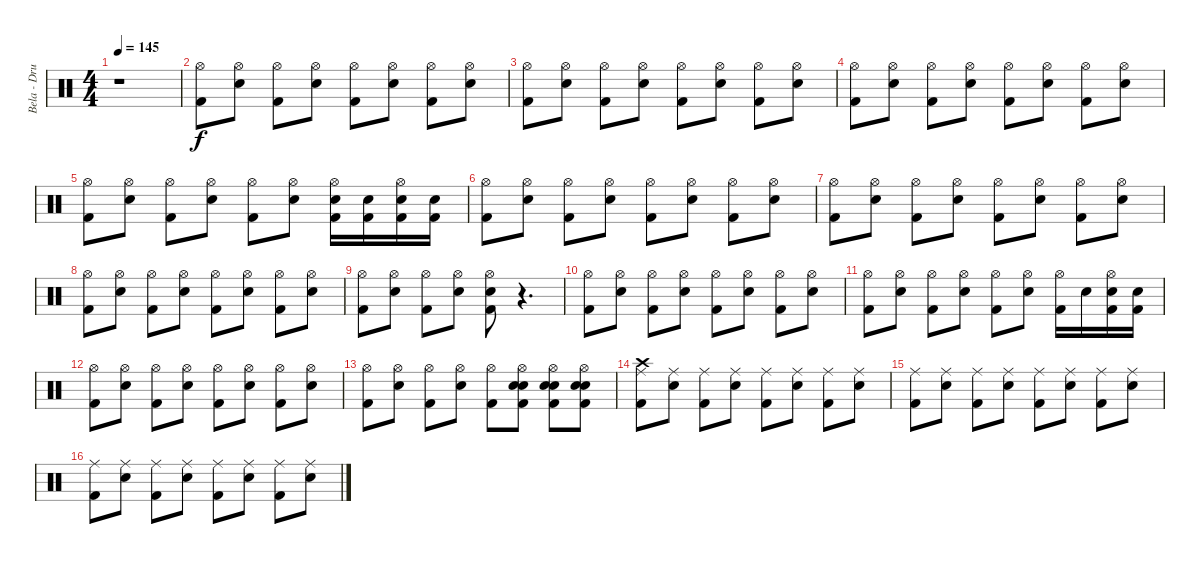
\track ("Bela - Drums" "Bela - Dru") {instrument percussion}
\staff {score}
\articulation defaults
\ts (4 4)
\tempo 145
\clef neutral
\ks c
r.1{dy f} |
("Hi-Hat (open)" "Kick (hit) 2").8 ("Hi-Hat (open)" "Electric Snare (hit)").8 ("Hi-Hat (open)" "Kick (hit) 2").8 ("Hi-Hat (open)" "Electric Snare (hit)").8 ("Hi-Hat (open)" "Kick (hit) 2").8 ("Hi-Hat (open)" "Electric Snare (hit)").8 ("Hi-Hat (open)" "Kick (hit) 2").8 ("Hi-Hat (open)" "Electric Snare (hit)").8 |
("Hi-Hat (open)" "Kick (hit) 2").8 ("Hi-Hat (open)" "Electric Snare (hit)").8 ("Hi-Hat (open)" "Kick (hit) 2").8 ("Hi-Hat (open)" "Electric Snare (hit)").8 ("Hi-Hat (open)" "Kick (hit) 2").8 ("Hi-Hat (open)" "Electric Snare (hit)").8 ("Hi-Hat (open)" "Kick (hit) 2").8 ("Hi-Hat (open)" "Electric Snare (hit)").8 |
("Hi-Hat (open)" "Kick (hit) 2").8 ("Hi-Hat (open)" "Electric Snare (hit)").8 ("Hi-Hat (open)" "Kick (hit) 2").8 ("Hi-Hat (open)" "Electric Snare (hit)").8 ("Hi-Hat (open)" "Kick (hit) 2").8 ("Hi-Hat (open)" "Electric Snare (hit)").8 ("Hi-Hat (open)" "Kick (hit) 2").8 ("Hi-Hat (open)" "Electric Snare (hit)").8 |
("Hi-Hat (open)" "Kick (hit) 2").8 ("Hi-Hat (open)" "Electric Snare (hit)").8 ("Hi-Hat (open)" "Kick (hit) 2").8 ("Hi-Hat (open)" "Electric Snare (hit)").8 ("Hi-Hat (open)" "Kick (hit) 2").8 ("Hi-Hat (open)" "Electric Snare (hit)").8 ("Electric Snare (hit)" "Hi-Hat (open)" "Kick (hit) 2").16 ("Kick (hit) 2" "Electric Snare (hit)").16 ("Kick (hit) 2" "Hi-Hat (open)" "Electric Snare (hit)").16 ("Electric Snare (hit)" "Kick (hit) 2").16 |
("Hi-Hat (open)" "Kick (hit) 2").8 ("Hi-Hat (open)" "Electric Snare (hit)").8 ("Hi-Hat (open)" "Kick (hit) 2").8 ("Hi-Hat (open)" "Electric Snare (hit)").8 ("Hi-Hat (open)" "Kick (hit) 2").8 ("Hi-Hat (open)" "Electric Snare (hit)").8 ("Hi-Hat (open)" "Kick (hit) 2").8 ("Hi-Hat (open)" "Electric Snare (hit)").8 |
("Hi-Hat (open)" "Kick (hit) 2").8 ("Hi-Hat (open)" "Electric Snare (hit)").8 ("Hi-Hat (open)" "Kick (hit) 2").8 ("Hi-Hat (open)" "Electric Snare (hit)").8 ("Hi-Hat (open)" "Kick (hit) 2").8 ("Hi-Hat (open)" "Electric Snare (hit)").8 ("Hi-Hat (open)" "Kick (hit) 2").8 ("Hi-Hat (open)" "Electric Snare (hit)").8 |
("Hi-Hat (open)" "Kick (hit) 2").8 ("Hi-Hat (open)" "Electric Snare (hit)").8 ("Hi-Hat (open)" "Kick (hit) 2").8 ("Hi-Hat (open)" "Electric Snare (hit)").8 ("Hi-Hat (open)" "Kick (hit) 2").8 ("Hi-Hat (open)" "Electric Snare (hit)").8 ("Hi-Hat (open)" "Kick (hit) 2").8 ("Hi-Hat (open)" "Electric Snare (hit)").8 |
("Hi-Hat (open)" "Kick (hit) 2").8 ("Hi-Hat (open)" "Electric Snare (hit)").8 ("Hi-Hat (open)" "Kick (hit) 2").8 ("Hi-Hat (open)" "Electric Snare (hit)").8 ("Electric Snare (hit)" "Hi-Hat (open)" "Kick (hit) 2").8 r.4{d} |
("Hi-Hat (open)" "Kick (hit) 2").8 ("Hi-Hat (open)" "Electric Snare (hit)").8 ("Hi-Hat (open)" "Kick (hit) 2").8 ("Hi-Hat (open)" "Electric Snare (hit)").8 ("Hi-Hat (open)" "Kick (hit) 2").8 ("Hi-Hat (open)" "Electric Snare (hit)").8 ("Hi-Hat (open)" "Kick (hit) 2").8 ("Hi-Hat (open)" "Electric Snare (hit)").8 |
("Hi-Hat (open)" "Kick (hit) 2").8 ("Hi-Hat (open)" "Electric Snare (hit)").8 ("Hi-Hat (open)" "Kick (hit) 2").8 ("Hi-Hat (open)" "Electric Snare (hit)").8 ("Hi-Hat (open)" "Kick (hit) 2").8 ("Hi-Hat (open)" "Electric Snare (hit)").8 ("Hi-Hat (open)" "Kick (hit) 2").16 "Electric Snare (hit)".16 ("Kick (hit) 2" "Hi-Hat (open)" "Electric Snare (hit)").16 ("Kick (hit) 2" "Electric Snare (hit)").16 |
("Hi-Hat (open)" "Kick (hit) 2").8 ("Hi-Hat (open)" "Electric Snare (hit)").8 ("Hi-Hat (open)" "Kick (hit) 2").8 ("Hi-Hat (open)" "Electric Snare (hit)").8 ("Kick (hit) 2" "Hi-Hat (open)").8 ("Hi-Hat (open)" "Electric Snare (hit)").8 ("Hi-Hat (open)" "Kick (hit) 2").8 ("Electric Snare (hit)" "Hi-Hat (open)").8 |
("Kick (hit) 2" "Hi-Hat (open)").8 ("Electric Snare (hit)" "Hi-Hat (open)").8 ("Hi-Hat (open)" "Kick (hit) 2").8 ("Electric Snare (hit)" "Hi-Hat (open)").8 ("Hi-Hat (open)" "Kick (hit) 2").8 ("Snare (hit) 2" "Kick (hit) 2" "Hi-Hat (open)" "Electric Snare (hit)").8 ("Electric Snare (hit)" "Snare (hit) 2" "Kick (hit) 2" "Hi-Hat (open)").8 ("Kick (hit) 2" "Hi-Hat (open)" "Electric Snare (hit)" "Snare (hit) 2").8 |
("Ride (middle)" "Kick (hit) 2" "Crash high (hit)").8 ("Ride (middle)" "Electric Snare (hit)").8 ("Ride (middle)" "Kick (hit) 2").8 ("Ride (middle)" "Electric Snare (hit)").8 ("Ride (middle)" "Kick (hit) 2").8 ("Ride (middle)" "Electric Snare (hit)").8 ("Kick (hit) 2" "Ride (middle)").8 ("Ride (middle)" "Electric Snare (hit)").8 |
("Ride (middle)" "Kick (hit) 2").8 ("Ride (middle)" "Electric Snare (hit)").8 ("Ride (middle)" "Kick (hit) 2").8 ("Ride (middle)" "Electric Snare (hit)").8 ("Ride (middle)" "Kick (hit) 2").8 ("Ride (middle)" "Electric Snare (hit)").8 ("Kick (hit) 2" "Ride (middle)").8 ("Ride (middle)" "Electric Snare (hit)").8 |
("Ride (middle)" "Kick (hit) 2").8 ("Ride (middle)" "Electric Snare (hit)").8 ("Ride (middle)" "Kick (hit) 2").8 ("Ride (middle)" "Electric Snare (hit)").8 ("Ride (middle)" "Kick (hit) 2").8 ("Ride (middle)" "Electric Snare (hit)").8 ("Kick (hit) 2" "Ride (middle)").8 ("Ride (middle)" "Electric Snare (hit)").8
